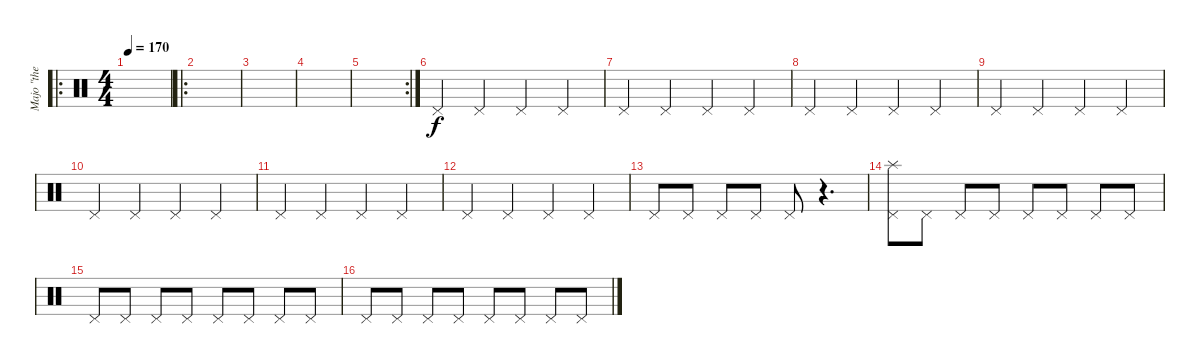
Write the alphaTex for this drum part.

\track ("Majo \"the Dremmel\" Hirt" "Majo \"the ") {instrument percussion}
\staff {score}
\articulation defaults
\ro
\ts (4 4)
\tempo 170
\clef neutral
\ks c
|
\ro
|
|
|
\rc 2
|
"Pedal Hi-Hat (hit)".4 "Pedal Hi-Hat (hit)".4 "Pedal Hi-Hat (hit)".4 "Pedal Hi-Hat (hit)".4 |
"Pedal Hi-Hat (hit)".4 "Pedal Hi-Hat (hit)".4 "Pedal Hi-Hat (hit)".4 "Pedal Hi-Hat (hit)".4 |
"Pedal Hi-Hat (hit)".4 "Pedal Hi-Hat (hit)".4 "Pedal Hi-Hat (hit)".4 "Pedal Hi-Hat (hit)".4 |
"Pedal Hi-Hat (hit)".4 "Pedal Hi-Hat (hit)".4 "Pedal Hi-Hat (hit)".4 "Pedal Hi-Hat (hit)".4 |
"Pedal Hi-Hat (hit)".4 "Pedal Hi-Hat (hit)".4 "Pedal Hi-Hat (hit)".4 "Pedal Hi-Hat (hit)".4 |
"Pedal Hi-Hat (hit)".4 "Pedal Hi-Hat (hit)".4 "Pedal Hi-Hat (hit)".4 "Pedal Hi-Hat (hit)".4 |
"Pedal Hi-Hat (hit)".4 "Pedal Hi-Hat (hit)".4 "Pedal Hi-Hat (hit)".4 "Pedal Hi-Hat (hit)".4 |
"Pedal Hi-Hat (hit)".8 "Pedal Hi-Hat (hit)".8 "Pedal Hi-Hat (hit)".8 "Pedal Hi-Hat (hit)".8 "Pedal Hi-Hat (hit)".8 r.4{d} |
("Splash (hit)" "Pedal Hi-Hat (hit)").8 "Pedal Hi-Hat (hit)".8 "Pedal Hi-Hat (hit)".8 "Pedal Hi-Hat (hit)".8 "Pedal Hi-Hat (hit)".8 "Pedal Hi-Hat (hit)".8 "Pedal Hi-Hat (hit)".8 "Pedal Hi-Hat (hit)".8 |
"Pedal Hi-Hat (hit)".8 "Pedal Hi-Hat (hit)".8 "Pedal Hi-Hat (hit)".8 "Pedal Hi-Hat (hit)".8 "Pedal Hi-Hat (hit)".8 "Pedal Hi-Hat (hit)".8 "Pedal Hi-Hat (hit)".8 "Pedal Hi-Hat (hit)".8 |
"Pedal Hi-Hat (hit)".8 "Pedal Hi-Hat (hit)".8 "Pedal Hi-Hat (hit)".8 "Pedal Hi-Hat (hit)".8 "Pedal Hi-Hat (hit)".8 "Pedal Hi-Hat (hit)".8 "Pedal Hi-Hat (hit)".8 "Pedal Hi-Hat (hit)".8
